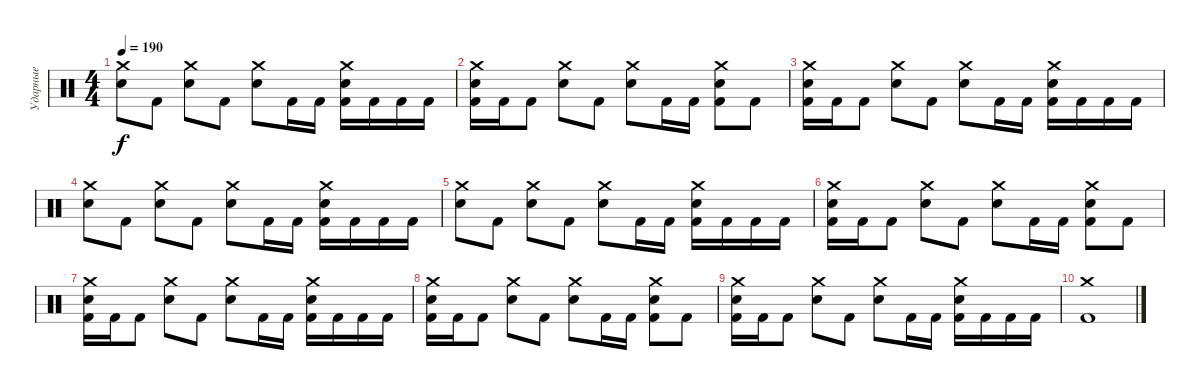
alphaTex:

\track ("Ударные" "Ударные") {instrument percussion}
\staff {score}
\articulation defaults
\ts (4 4)
\tempo 190
\clef neutral
\ks c
("Crash medium (hit)" "Snare (hit) 2").8{dy f} "Kick (hit) 2".8 ("Crash medium (hit)" "Snare (hit) 2").8 "Kick (hit) 2".8 ("Crash medium (hit)" "Snare (hit) 2").8 "Kick (hit) 2".16 "Kick (hit) 2".16 ("Crash medium (hit)" "Snare (hit) 2" "Kick (hit) 2").16 "Kick (hit) 2".16 "Kick (hit) 2".16 "Kick (hit) 2".16 |
("Crash medium (hit)" "Snare (hit) 2" "Kick (hit) 2").16 "Kick (hit) 2".16 "Kick (hit) 2".8 ("Crash medium (hit)" "Snare (hit) 2").8 "Kick (hit) 2".8 ("Crash medium (hit)" "Snare (hit) 2").8 "Kick (hit) 2".16 "Kick (hit) 2".16 ("Crash medium (hit)" "Snare (hit) 2" "Kick (hit) 2").8 "Kick (hit) 2".8 |
("Crash medium (hit)" "Snare (hit) 2" "Kick (hit) 2").16 "Kick (hit) 2".16 "Kick (hit) 2".8 ("Crash medium (hit)" "Snare (hit) 2").8 "Kick (hit) 2".8 ("Crash medium (hit)" "Snare (hit) 2").8 "Kick (hit) 2".16 "Kick (hit) 2".16 ("Crash medium (hit)" "Snare (hit) 2" "Kick (hit) 2").16 "Kick (hit) 2".16 "Kick (hit) 2".16 "Kick (hit) 2".16 |
("Crash medium (hit)" "Snare (hit) 2").8 "Kick (hit) 2".8 ("Crash medium (hit)" "Snare (hit) 2").8 "Kick (hit) 2".8 ("Crash medium (hit)" "Snare (hit) 2").8 "Kick (hit) 2".16 "Kick (hit) 2".16 ("Crash medium (hit)" "Snare (hit) 2" "Kick (hit) 2").16 "Kick (hit) 2".16 "Kick (hit) 2".16 "Kick (hit) 2".16 |
("Crash medium (hit)" "Snare (hit) 2").8 "Kick (hit) 2".8 ("Crash medium (hit)" "Snare (hit) 2").8 "Kick (hit) 2".8 ("Crash medium (hit)" "Snare (hit) 2").8 "Kick (hit) 2".16 "Kick (hit) 2".16 ("Crash medium (hit)" "Snare (hit) 2" "Kick (hit) 2").16 "Kick (hit) 2".16 "Kick (hit) 2".16 "Kick (hit) 2".16 |
("Crash medium (hit)" "Snare (hit) 2" "Kick (hit) 2").16 "Kick (hit) 2".16 "Kick (hit) 2".8 ("Crash medium (hit)" "Snare (hit) 2").8 "Kick (hit) 2".8 ("Crash medium (hit)" "Snare (hit) 2").8 "Kick (hit) 2".16 "Kick (hit) 2".16 ("Crash medium (hit)" "Snare (hit) 2" "Kick (hit) 2").8 "Kick (hit) 2".8 |
("Crash medium (hit)" "Snare (hit) 2" "Kick (hit) 2").16 "Kick (hit) 2".16 "Kick (hit) 2".8 ("Crash medium (hit)" "Snare (hit) 2").8 "Kick (hit) 2".8 ("Crash medium (hit)" "Snare (hit) 2").8 "Kick (hit) 2".16 "Kick (hit) 2".16 ("Crash medium (hit)" "Snare (hit) 2" "Kick (hit) 2").16 "Kick (hit) 2".16 "Kick (hit) 2".16 "Kick (hit) 2".16 |
("Crash medium (hit)" "Snare (hit) 2" "Kick (hit) 2").16 "Kick (hit) 2".16 "Kick (hit) 2".8 ("Crash medium (hit)" "Snare (hit) 2").8 "Kick (hit) 2".8 ("Crash medium (hit)" "Snare (hit) 2").8 "Kick (hit) 2".16 "Kick (hit) 2".16 ("Crash medium (hit)" "Snare (hit) 2" "Kick (hit) 2").8 "Kick (hit) 2".8 |
("Crash medium (hit)" "Snare (hit) 2" "Kick (hit) 2").16 "Kick (hit) 2".16 "Kick (hit) 2".8 ("Crash medium (hit)" "Snare (hit) 2").8 "Kick (hit) 2".8 ("Crash medium (hit)" "Snare (hit) 2").8 "Kick (hit) 2".16 "Kick (hit) 2".16 ("Crash medium (hit)" "Snare (hit) 2" "Kick (hit) 2").16 "Kick (hit) 2".16 "Kick (hit) 2".16 "Kick (hit) 2".16 |
("Crash medium (hit)" "Kick (hit) 2").1
